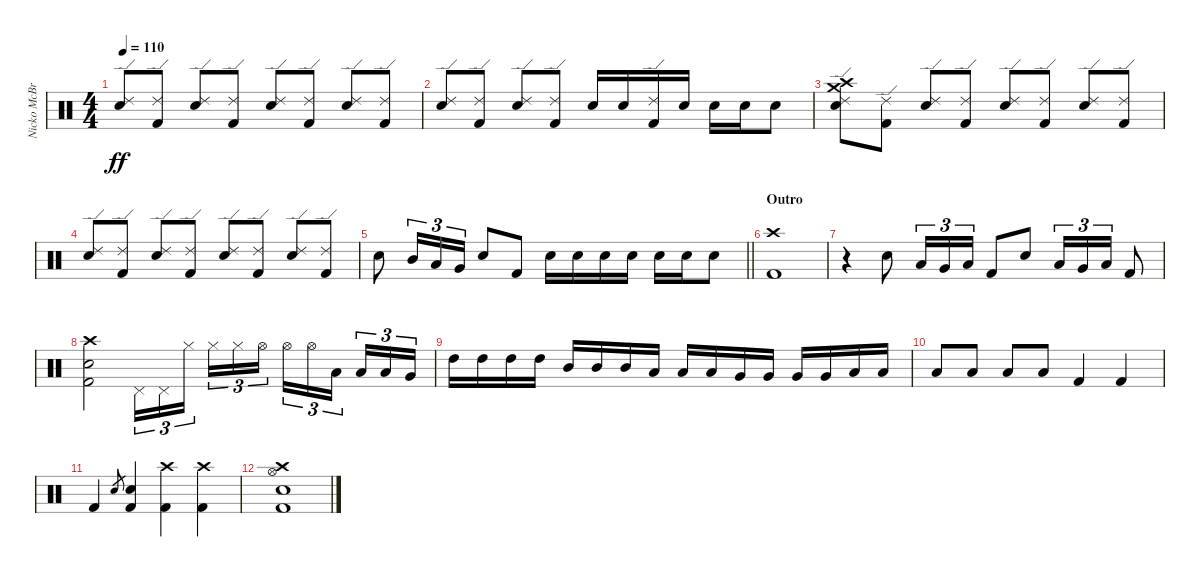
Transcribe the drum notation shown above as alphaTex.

\track ("Nicko McBrain" "Nicko McBr") {instrument percussion}
\staff {score}
\articulation defaults
\ts (4 4)
\tempo 110
\clef neutral
\ks c
("Snare (hit) 2" "Ride (edge) 2").8{dy ff} ("Kick (hit) 2" "Ride (edge) 2").8 ("Snare (hit) 2" "Ride (edge) 2").8 ("Kick (hit) 2" "Ride (edge) 2").8 ("Snare (hit) 2" "Ride (edge) 2").8 ("Kick (hit) 2" "Ride (edge) 2").8 ("Snare (hit) 2" "Ride (edge) 2").8 ("Kick (hit) 2" "Ride (edge) 2").8 |
("Snare (hit) 2" "Ride (edge) 2").8 ("Kick (hit) 2" "Ride (edge) 2").8 ("Snare (hit) 2" "Ride (edge) 2").8 ("Kick (hit) 2" "Ride (edge) 2").8 "Snare (hit) 2".16 "Snare (hit) 2".16 ("Kick (hit) 2" "Ride (edge) 2").16 "Snare (hit) 2".16 "Snare (hit) 2".16 "Snare (hit) 2".16 "Snare (hit) 2".8 |
("Snare (hit) 2" "Crash high (hit)" "Crash medium (hit)" "Ride (edge) 2").8 ("Kick (hit) 2" "Ride (edge) 2").8 ("Snare (hit) 2" "Ride (edge) 2").8 ("Kick (hit) 2" "Ride (edge) 2").8 ("Snare (hit) 2" "Ride (edge) 2").8 ("Kick (hit) 2" "Ride (edge) 2").8 ("Snare (hit) 2" "Ride (edge) 2").8 ("Kick (hit) 2" "Ride (edge) 2").8 |
("Snare (hit) 2" "Ride (edge) 2").8 ("Kick (hit) 2" "Ride (edge) 2").8 ("Snare (hit) 2" "Ride (edge) 2").8 ("Kick (hit) 2" "Ride (edge) 2").8 ("Snare (hit) 2" "Ride (edge) 2").8 ("Kick (hit) 2" "Ride (edge) 2").8 ("Snare (hit) 2" "Ride (edge) 2").8 ("Kick (hit) 2" "Ride (edge) 2").8 |
\barLineRight lightlight "Snare (hit) 2".8 "Mid Tom (hit)".16{tu (3 2)} "Low Tom (hit)".16{tu (3 2)} "Very Low Tom (hit)".16{tu (3 2)} "Snare (hit) 2".8 "Kick (hit) 2".8 "Snare (hit) 2".16 "Snare (hit) 2".16 "Snare (hit) 2".16 "Snare (hit) 2".16 "Snare (hit) 2".16 "Snare (hit) 2".16 "Snare (hit) 2".8
|
\section ("" "Outro")
("Kick (hit) 2" "Crash high (hit)").1 |
r.4 "Snare (hit) 2".8 "Low Tom (hit)".16{tu (3 2)} "Very Low Tom (hit)".16{tu (3 2)} "Low Floor Tom (hit)".16{tu (3 2)} "Kick (hit) 2".8 "Snare (hit) 2".8 "Low Tom (hit)".16{tu (3 2)} "Very Low Tom (hit)".16{tu (3 2)} "Low Floor Tom (hit)".16{tu (3 2)} "Kick (hit) 2".8 |
("Kick (hit) 2" "Snare (hit) 2" "Crash high (hit)").2 "Pedal Hi-Hat (hit)".16{tu (3 2)} "Pedal Hi-Hat (hit)".16{tu (3 2)} "Hi-Hat (closed)".16{tu (3 2) beam splitsecondary} "Hi-Hat (closed)".16{tu (3 2)} "Hi-Hat (closed)".16{tu (3 2)} "Hi-Hat (open)".16{tu (3 2)} "Hi-Hat (open)".16{tu (3 2)} "Hi-Hat (open)".16{tu (3 2)} "Low Tom (hit)".16{tu (3 2) beam splitsecondary} "Low Tom (hit)".16{tu (3 2)} "Low Tom (hit)".16{tu (3 2)} "Very Low Tom (hit)".16{tu (3 2)} |
"High Tom (hit)".16 "High Tom (hit)".16 "High Tom (hit)".16 "High Tom (hit)".16 "Mid Tom (hit)".16 "Mid Tom (hit)".16 "Mid Tom (hit)".16 "Low Tom (hit)".16 "Low Tom (hit)".16 "Low Tom (hit)".16 "Very Low Tom (hit)".16 "Very Low Tom (hit)".16 "Very Low Tom (hit)".16 "Very Low Tom (hit)".16 "Low Floor Tom (hit)".16 "Low Floor Tom (hit)".16 |
"Low Floor Tom (hit)".8 "Low Floor Tom (hit)".8 "Low Floor Tom (hit)".8 "Low Floor Tom (hit)".8 "Kick (hit) 2".4 "Kick (hit) 2".4 |
"Kick (hit) 2".4 "Snare (hit) 2".8{gr} ("Snare (hit) 2" "Kick (hit) 2").4 ("Kick (hit) 2" "Crash high (hit)").4 ("Kick (hit) 2" "Crash high (hit)").4 |
("Snare (hit) 2" "Kick (hit) 2" "Hi-Hat (open)" "Crash high (hit)").1
